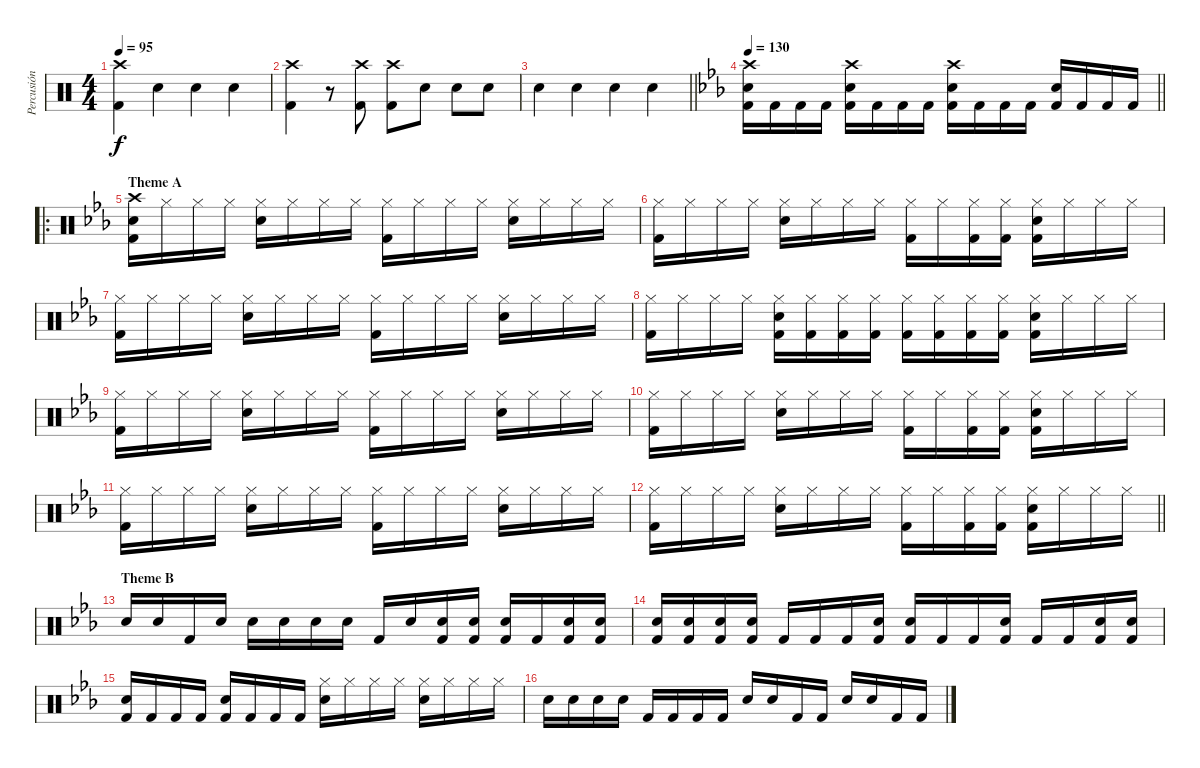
\track ("Percusión" "Percusión") {instrument percussion}
\staff {score}
\articulation defaults
\ts (4 4)
\tempo 95
\clef neutral
\ks c
("Crash high (hit)" "Kick (hit) 2").4{dy f} "Snare (hit)".4 "Snare (hit)".4 "Snare (hit)".4 |
("Crash high (hit)" "Kick (hit) 2").4 r.8 ("Crash high (hit)" "Kick (hit) 2").8 ("Crash high (hit)" "Kick (hit) 2").8 "Snare (hit)".8 "Snare (hit)".8 "Snare (hit)".8 |
\barLineRight lightlight "Snare (hit)".4 "Snare (hit)".4 "Snare (hit)".4 "Snare (hit)".4
|
\tempo 150
\tempo 130
\barLineRight lightlight
\ks eb
("Crash high (hit)" "Snare (hit) 2" "Kick (hit) 2").16 "Kick (hit) 2".16 "Kick (hit) 2".16 "Kick (hit) 2".16 ("Crash high (hit)" "Snare (hit) 2" "Kick (hit) 2").16 "Kick (hit) 2".16 "Kick (hit) 2".16 "Kick (hit) 2".16 ("Crash high (hit)" "Snare (hit) 2" "Kick (hit) 2").16 "Kick (hit) 2".16 "Kick (hit) 2".16 "Kick (hit) 2".16 ("Snare (hit) 2" "Kick (hit) 2").16 "Kick (hit) 2".16 "Kick (hit) 2".16 "Kick (hit) 2".16 |
\ro
\section ("" "Theme A")
("Crash high (hit)" "Kick (hit) 2" "Snare (hit) 2").16 "Hi-Hat (closed)".16 "Hi-Hat (closed)".16 "Hi-Hat (closed)".16 ("Hi-Hat (closed)" "Snare (hit) 2").16 "Hi-Hat (closed)".16 "Hi-Hat (closed)".16 "Hi-Hat (closed)".16 ("Kick (hit) 2" "Hi-Hat (closed)").16 "Hi-Hat (closed)".16 "Hi-Hat (closed)".16 "Hi-Hat (closed)".16 ("Hi-Hat (closed)" "Snare (hit) 2").16 "Hi-Hat (closed)".16 "Hi-Hat (closed)".16 "Hi-Hat (closed)".16 |
("Kick (hit) 2" "Hi-Hat (closed)").16 "Hi-Hat (closed)".16 "Hi-Hat (closed)".16 "Hi-Hat (closed)".16 ("Hi-Hat (closed)" "Snare (hit) 2").16 "Hi-Hat (closed)".16 "Hi-Hat (closed)".16 "Hi-Hat (closed)".16 ("Kick (hit) 2" "Hi-Hat (closed)").16 "Hi-Hat (closed)".16 ("Kick (hit) 2" "Hi-Hat (closed)").16 ("Kick (hit) 2" "Hi-Hat (closed)").16 ("Kick (hit) 2" "Hi-Hat (closed)" "Snare (hit) 2").16 "Hi-Hat (closed)".16 "Hi-Hat (closed)".16 "Hi-Hat (closed)".16 |
("Kick (hit) 2" "Hi-Hat (closed)").16 "Hi-Hat (closed)".16 "Hi-Hat (closed)".16 "Hi-Hat (closed)".16 ("Hi-Hat (closed)" "Snare (hit) 2").16 "Hi-Hat (closed)".16 "Hi-Hat (closed)".16 "Hi-Hat (closed)".16 ("Kick (hit) 2" "Hi-Hat (closed)").16 "Hi-Hat (closed)".16 "Hi-Hat (closed)".16 "Hi-Hat (closed)".16 ("Hi-Hat (closed)" "Snare (hit) 2").16 "Hi-Hat (closed)".16 "Hi-Hat (closed)".16 "Hi-Hat (closed)".16 |
("Kick (hit) 2" "Hi-Hat (closed)").16 "Hi-Hat (closed)".16 "Hi-Hat (closed)".16 "Hi-Hat (closed)".16 ("Kick (hit) 2" "Hi-Hat (closed)" "Snare (hit) 2").16 ("Kick (hit) 2" "Hi-Hat (closed)").16 ("Kick (hit) 2" "Hi-Hat (closed)").16 ("Kick (hit) 2" "Hi-Hat (closed)").16 ("Kick (hit) 2" "Hi-Hat (closed)").16 ("Kick (hit) 2" "Hi-Hat (closed)").16 ("Kick (hit) 2" "Hi-Hat (closed)").16 ("Kick (hit) 2" "Hi-Hat (closed)").16 ("Kick (hit) 2" "Hi-Hat (closed)" "Snare (hit) 2").16 "Hi-Hat (closed)".16 "Hi-Hat (closed)".16 "Hi-Hat (closed)".16 |
("Kick (hit) 2" "Hi-Hat (closed)").16 "Hi-Hat (closed)".16 "Hi-Hat (closed)".16 "Hi-Hat (closed)".16 ("Hi-Hat (closed)" "Snare (hit) 2").16 "Hi-Hat (closed)".16 "Hi-Hat (closed)".16 "Hi-Hat (closed)".16 ("Kick (hit) 2" "Hi-Hat (closed)").16 "Hi-Hat (closed)".16 "Hi-Hat (closed)".16 "Hi-Hat (closed)".16 ("Hi-Hat (closed)" "Snare (hit) 2").16 "Hi-Hat (closed)".16 "Hi-Hat (closed)".16 "Hi-Hat (closed)".16 |
("Kick (hit) 2" "Hi-Hat (closed)").16 "Hi-Hat (closed)".16 "Hi-Hat (closed)".16 "Hi-Hat (closed)".16 ("Hi-Hat (closed)" "Snare (hit) 2").16 "Hi-Hat (closed)".16 "Hi-Hat (closed)".16 "Hi-Hat (closed)".16 ("Kick (hit) 2" "Hi-Hat (closed)").16 "Hi-Hat (closed)".16 ("Kick (hit) 2" "Hi-Hat (closed)").16 ("Kick (hit) 2" "Hi-Hat (closed)").16 ("Kick (hit) 2" "Hi-Hat (closed)" "Snare (hit) 2").16 "Hi-Hat (closed)".16 "Hi-Hat (closed)".16 "Hi-Hat (closed)".16 |
("Kick (hit) 2" "Hi-Hat (closed)").16 "Hi-Hat (closed)".16 "Hi-Hat (closed)".16 "Hi-Hat (closed)".16 ("Hi-Hat (closed)" "Snare (hit) 2").16 "Hi-Hat (closed)".16 "Hi-Hat (closed)".16 "Hi-Hat (closed)".16 ("Kick (hit) 2" "Hi-Hat (closed)").16 "Hi-Hat (closed)".16 "Hi-Hat (closed)".16 "Hi-Hat (closed)".16 ("Hi-Hat (closed)" "Snare (hit) 2").16 "Hi-Hat (closed)".16 "Hi-Hat (closed)".16 "Hi-Hat (closed)".16 |
\barLineRight lightlight
("Kick (hit) 2" "Hi-Hat (closed)").16 "Hi-Hat (closed)".16 "Hi-Hat (closed)".16 "Hi-Hat (closed)".16 ("Hi-Hat (closed)" "Snare (hit) 2").16 "Hi-Hat (closed)".16 "Hi-Hat (closed)".16 "Hi-Hat (closed)".16 ("Kick (hit) 2" "Hi-Hat (closed)").16 "Hi-Hat (closed)".16 ("Kick (hit) 2" "Hi-Hat (closed)").16 ("Kick (hit) 2" "Hi-Hat (closed)").16 ("Kick (hit) 2" "Hi-Hat (closed)" "Snare (hit) 2").16 "Hi-Hat (closed)".16 "Hi-Hat (closed)".16 "Hi-Hat (closed)".16 |
\section ("" "Theme B")
"Snare (hit) 2".16 "Snare (hit) 2".16 "Kick (hit) 2".16 "Snare (hit) 2".16 "Snare (hit) 2".16 "Snare (hit)".16 "Snare (hit) 2".16 "Snare (hit) 2".16 "Kick (hit) 2".16 "Snare (hit) 2".16 ("Snare (hit) 2" "Kick (hit) 2").16 ("Snare (hit) 2" "Kick (hit) 2").16 ("Snare (hit) 2" "Kick (hit) 2").16 "Kick (hit) 2".16 ("Snare (hit) 2" "Kick (hit) 2").16 ("Snare (hit) 2" "Kick (hit) 2").16 |
("Snare (hit) 2" "Kick (hit) 2").16 ("Snare (hit) 2" "Kick (hit) 2").16 ("Snare (hit) 2" "Kick (hit) 2").16 ("Snare (hit) 2" "Kick (hit) 2").16 "Kick (hit) 2".16 "Kick (hit) 2".16 "Kick (hit) 2".16 ("Snare (hit) 2" "Kick (hit) 2").16 ("Snare (hit) 2" "Kick (hit) 2").16 "Kick (hit) 2".16 "Kick (hit) 2".16 ("Snare (hit) 2" "Kick (hit) 2").16 "Kick (hit) 2".16 "Kick (hit) 2".16 ("Snare (hit) 2" "Kick (hit) 2").16 ("Snare (hit) 2" "Kick (hit) 2").16 |
("Snare (hit) 2" "Kick (hit) 2").16 "Kick (hit) 2".16 "Kick (hit) 2".16 "Kick (hit) 2".16 ("Snare (hit) 2" "Kick (hit) 2").16 "Kick (hit) 2".16 "Kick (hit) 2".16 "Kick (hit) 2".16 ("Hi-Hat (closed)" "Snare (hit) 2").16 "Hi-Hat (closed)".16 "Hi-Hat (closed)".16 "Hi-Hat (closed)".16 ("Hi-Hat (closed)" "Snare (hit) 2").16 "Hi-Hat (closed)".16 "Hi-Hat (closed)".16 "Hi-Hat (closed)".16 |
"Snare (hit) 2".16 "Snare (hit) 2".16 "Snare (hit) 2".16 "Snare (hit) 2".16 "Kick (hit) 2".16 "Kick (hit) 2".16 "Kick (hit) 2".16 "Kick (hit) 2".16 "Snare (hit) 2".16 "Snare (hit) 2".16 "Kick (hit) 2".16 "Kick (hit) 2".16 "Snare (hit) 2".16 "Snare (hit) 2".16 "Kick (hit) 2".16 "Kick (hit) 2".16
